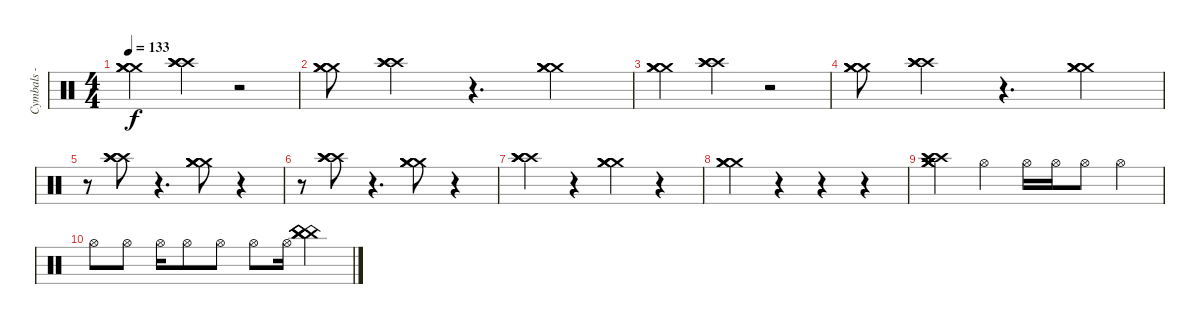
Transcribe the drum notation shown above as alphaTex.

\track ("Cymbals - Joe Daniels" "Cymbals - ") {instrument percussion}
\staff {score}
\articulation defaults
\ts (4 4)
\tempo 133
\clef neutral
\ks c
("Crash medium (hit)" "Crash medium (hit)" "Crash medium (hit)" "Crash medium (hit)").4{dy f} ("Crash high (hit)" "Crash high (hit)" "Crash high (hit)" "Crash high (hit)").4 r.2 |
("Crash medium (hit)" "Crash medium (hit)" "Crash medium (hit)" "Crash medium (hit)").8 ("Crash high (hit)" "Crash high (hit)" "Crash high (hit)" "Crash high (hit)").4 r.4{d} ("Crash medium (hit)" "Crash medium (hit)" "Crash medium (hit)" "Crash medium (hit)").4 |
("Crash medium (hit)" "Crash medium (hit)" "Crash medium (hit)" "Crash medium (hit)").4 ("Crash high (hit)" "Crash high (hit)" "Crash high (hit)" "Crash high (hit)").4 r.2 |
("Crash medium (hit)" "Crash medium (hit)" "Crash medium (hit)" "Crash medium (hit)").8 ("Crash high (hit)" "Crash high (hit)" "Crash high (hit)" "Crash high (hit)").4 r.4{d} ("Crash medium (hit)" "Crash medium (hit)" "Crash medium (hit)" "Crash medium (hit)").4 |
r.8 ("Crash high (hit)" "Crash high (hit)" "Crash high (hit)" "Crash high (hit)").8 r.4{d} ("Crash medium (hit)" "Crash medium (hit)" "Crash medium (hit)" "Crash medium (hit)").8 r.4 |
r.8 ("Crash high (hit)" "Crash high (hit)" "Crash high (hit)" "Crash high (hit)").8 r.4{d} ("Crash medium (hit)" "Crash medium (hit)" "Crash medium (hit)" "Crash medium (hit)").8 r.4 |
("Crash high (hit)" "Crash high (hit)" "Crash high (hit)" "Crash high (hit)").4 r.4 ("Crash medium (hit)" "Crash medium (hit)" "Crash medium (hit)" "Crash medium (hit)").4 r.4 |
("Crash medium (hit)" "Crash medium (hit)" "Crash medium (hit)" "Crash medium (hit)").4 r.4 r.4 r.4 |
("Crash medium (hit)" "Crash medium (hit)" "Crash medium (hit)" "Crash high (hit)" "Crash high (hit)" "Crash high (hit)").4 "Hi-Hat (open)".4 "Hi-Hat (open)".16 "Hi-Hat (open)".16 "Hi-Hat (open)".8 "Hi-Hat (open)".4 |
"Hi-Hat (open)".8 "Hi-Hat (open)".8 "Hi-Hat (open)".16 "Hi-Hat (open)".8 "Hi-Hat (open)".8 "Hi-Hat (open)".8 "Hi-Hat (open)".16 ("China (hit)" "China (hit)" "China (hit)" "China (hit)").4
